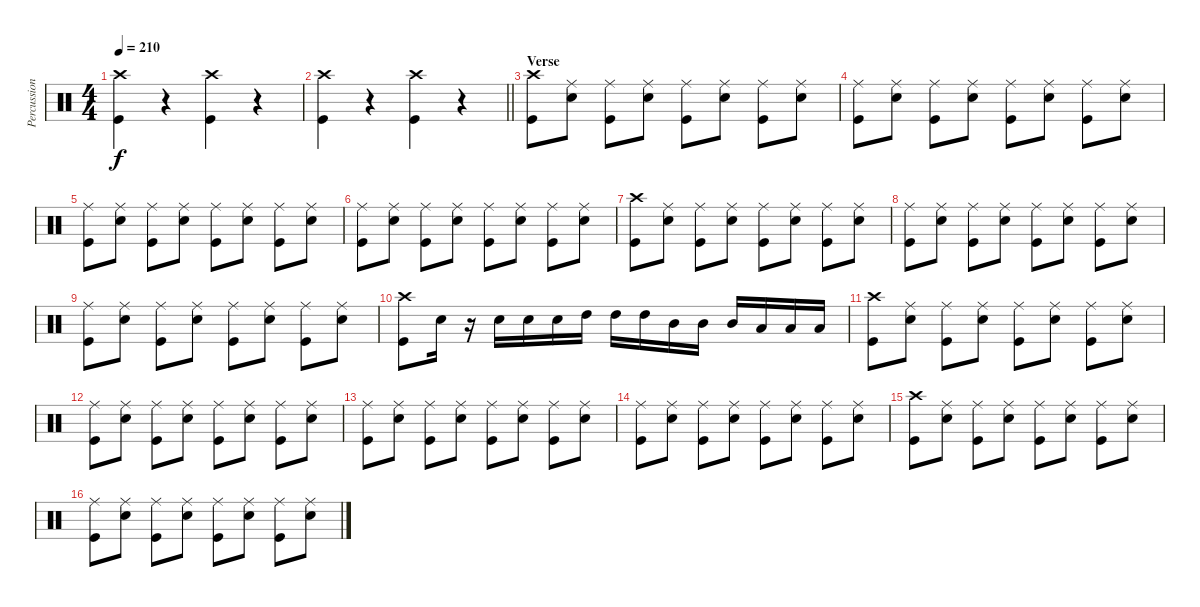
\track ("Percussion" "Percussion") {instrument percussion}
\staff {score}
\articulation defaults
\ts (4 4)
\tempo 210
\clef neutral
\ks c
("Crash high (hit)" "Kick (hit)").4{dy f} r.4 ("Crash high (hit)" "Kick (hit)").4 r.4 |
\barLineRight lightlight
("Crash high (hit)" "Kick (hit)").4 r.4 ("Crash high (hit)" "Kick (hit)").4 r.4 |
\section ("" "Verse")
("Crash high (hit)" "Kick (hit)").8 ("Ride (middle)" "Snare (hit) 2").8 ("Ride (middle)" "Kick (hit)").8 ("Ride (middle)" "Snare (hit) 2").8 ("Ride (middle)" "Kick (hit)").8 ("Ride (middle)" "Snare (hit) 2").8 ("Ride (middle)" "Kick (hit)").8 ("Ride (middle)" "Snare (hit) 2").8 |
("Ride (middle)" "Kick (hit)").8 ("Ride (middle)" "Snare (hit) 2").8 ("Ride (middle)" "Kick (hit)").8 ("Ride (middle)" "Snare (hit) 2").8 ("Ride (middle)" "Kick (hit)").8 ("Ride (middle)" "Snare (hit) 2").8 ("Ride (middle)" "Kick (hit)").8 ("Ride (middle)" "Snare (hit) 2").8 |
("Ride (middle)" "Kick (hit)").8 ("Ride (middle)" "Snare (hit) 2").8 ("Ride (middle)" "Kick (hit)").8 ("Ride (middle)" "Snare (hit) 2").8 ("Ride (middle)" "Kick (hit)").8 ("Ride (middle)" "Snare (hit) 2").8 ("Ride (middle)" "Kick (hit)").8 ("Ride (middle)" "Snare (hit) 2").8 |
("Ride (middle)" "Kick (hit)").8 ("Ride (middle)" "Snare (hit) 2").8 ("Ride (middle)" "Kick (hit)").8 ("Ride (middle)" "Snare (hit) 2").8 ("Ride (middle)" "Kick (hit)").8 ("Ride (middle)" "Snare (hit) 2").8 ("Ride (middle)" "Kick (hit)").8 ("Ride (middle)" "Snare (hit) 2").8 |
("Crash high (hit)" "Kick (hit)").8 ("Ride (middle)" "Snare (hit) 2").8 ("Ride (middle)" "Kick (hit)").8 ("Ride (middle)" "Snare (hit) 2").8 ("Ride (middle)" "Kick (hit)").8 ("Ride (middle)" "Snare (hit) 2").8 ("Ride (middle)" "Kick (hit)").8 ("Ride (middle)" "Snare (hit) 2").8 |
("Ride (middle)" "Kick (hit)").8 ("Ride (middle)" "Snare (hit) 2").8 ("Ride (middle)" "Kick (hit)").8 ("Ride (middle)" "Snare (hit) 2").8 ("Ride (middle)" "Kick (hit)").8 ("Ride (middle)" "Snare (hit) 2").8 ("Ride (middle)" "Kick (hit)").8 ("Ride (middle)" "Snare (hit) 2").8 |
("Ride (middle)" "Kick (hit)").8 ("Ride (middle)" "Snare (hit) 2").8 ("Ride (middle)" "Kick (hit)").8 ("Ride (middle)" "Snare (hit) 2").8 ("Ride (middle)" "Kick (hit)").8 ("Ride (middle)" "Snare (hit) 2").8 ("Ride (middle)" "Kick (hit)").8 ("Ride (middle)" "Snare (hit) 2").8 |
("Crash high (hit)" "Kick (hit)").8 "Snare (hit) 2".16 r.16 "Snare (hit) 2".16 "Snare (hit) 2".16 "Snare (hit) 2".16 "High Tom (hit)".16 "High Tom (hit)".16 "High Tom (hit)".16 "Mid Tom (hit)".16 "Mid Tom (hit)".16 "Mid Tom (hit)".16 "Low Tom (hit)".16 "Low Tom (hit)".16 "Low Tom (hit)".16 |
("Crash high (hit)" "Kick (hit)").8 ("Ride (middle)" "Snare (hit) 2").8 ("Ride (middle)" "Kick (hit)").8 ("Ride (middle)" "Snare (hit) 2").8 ("Ride (middle)" "Kick (hit)").8 ("Ride (middle)" "Snare (hit) 2").8 ("Ride (middle)" "Kick (hit)").8 ("Ride (middle)" "Snare (hit) 2").8 |
("Ride (middle)" "Kick (hit)").8 ("Ride (middle)" "Snare (hit) 2").8 ("Ride (middle)" "Kick (hit)").8 ("Ride (middle)" "Snare (hit) 2").8 ("Ride (middle)" "Kick (hit)").8 ("Ride (middle)" "Snare (hit) 2").8 ("Ride (middle)" "Kick (hit)").8 ("Ride (middle)" "Snare (hit) 2").8 |
("Ride (middle)" "Kick (hit)").8 ("Ride (middle)" "Snare (hit) 2").8 ("Ride (middle)" "Kick (hit)").8 ("Ride (middle)" "Snare (hit) 2").8 ("Ride (middle)" "Kick (hit)").8 ("Ride (middle)" "Snare (hit) 2").8 ("Ride (middle)" "Kick (hit)").8 ("Ride (middle)" "Snare (hit) 2").8 |
("Ride (middle)" "Kick (hit)").8 ("Ride (middle)" "Snare (hit) 2").8 ("Ride (middle)" "Kick (hit)").8 ("Ride (middle)" "Snare (hit) 2").8 ("Ride (middle)" "Kick (hit)").8 ("Ride (middle)" "Snare (hit) 2").8 ("Ride (middle)" "Kick (hit)").8 ("Ride (middle)" "Snare (hit) 2").8 |
("Crash high (hit)" "Kick (hit)").8 ("Ride (middle)" "Snare (hit) 2").8 ("Ride (middle)" "Kick (hit)").8 ("Ride (middle)" "Snare (hit) 2").8 ("Ride (middle)" "Kick (hit)").8 ("Ride (middle)" "Snare (hit) 2").8 ("Ride (middle)" "Kick (hit)").8 ("Ride (middle)" "Snare (hit) 2").8 |
("Ride (middle)" "Kick (hit)").8 ("Ride (middle)" "Snare (hit) 2").8 ("Ride (middle)" "Kick (hit)").8 ("Ride (middle)" "Snare (hit) 2").8 ("Ride (middle)" "Kick (hit)").8 ("Ride (middle)" "Snare (hit) 2").8 ("Ride (middle)" "Kick (hit)").8 ("Ride (middle)" "Snare (hit) 2").8
